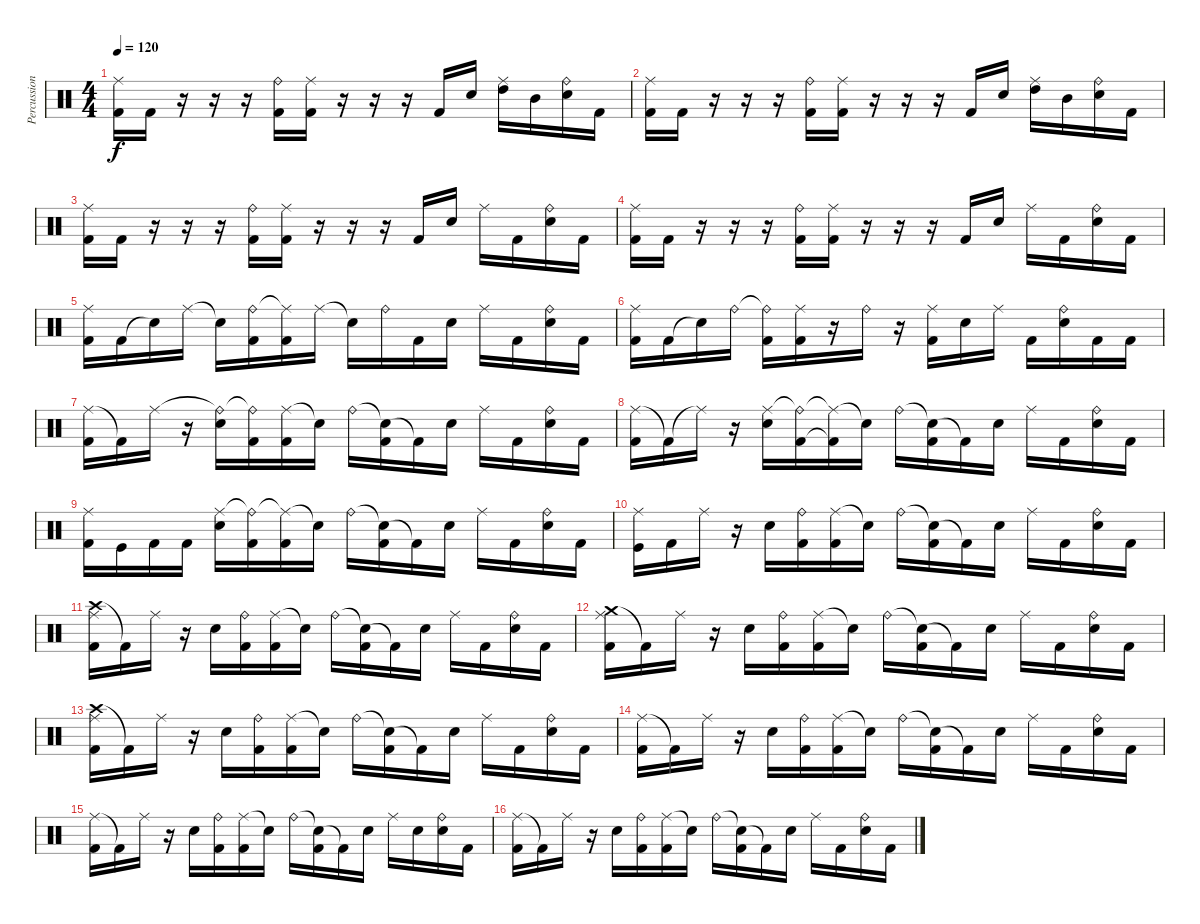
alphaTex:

\track ("Percussioni" "Percussion") {instrument percussion}
\staff {score}
\articulation defaults
\ts (4 4)
\tempo 120
\clef neutral
\ks c
("Ride (middle)" "Kick (hit) 2").16{dy f} "Kick (hit) 2".16 r.16 r.16 r.16 ("Ride (bell)" "Kick (hit) 2").16 ("Ride (middle)" "Kick (hit) 2").16 r.16 r.16 r.16 "Kick (hit) 2".16 "Electric Snare (hit)".16 ("Ride (middle)" "High Tom (hit)").16 "Mid Tom (hit)".16 ("Ride (bell)" "Electric Snare (hit)").16 "Kick (hit) 2".16 |
("Ride (middle)" "Kick (hit) 2").16 "Kick (hit) 2".16 r.16 r.16 r.16 ("Ride (bell)" "Kick (hit) 2").16 ("Ride (middle)" "Kick (hit) 2").16 r.16 r.16 r.16 "Kick (hit) 2".16 "Electric Snare (hit)".16 ("Ride (middle)" "High Tom (hit)").16 "Mid Tom (hit)".16 ("Ride (bell)" "Electric Snare (hit)").16 "Kick (hit) 2".16 |
("Ride (middle)" "Kick (hit) 2").16 "Kick (hit) 2".16 r.16 r.16 r.16 ("Ride (bell)" "Kick (hit) 2").16 ("Ride (middle)" "Kick (hit) 2").16 r.16 r.16 r.16 "Kick (hit) 2".16 "Electric Snare (hit)".16 "Ride (middle)".16 "Kick (hit) 2".16 ("Ride (bell)" "Electric Snare (hit)").16 "Kick (hit) 2".16 |
("Ride (middle)" "Kick (hit) 2").16 "Kick (hit) 2".16 r.16 r.16 r.16 ("Ride (bell)" "Kick (hit) 2").16 ("Ride (middle)" "Kick (hit) 2").16 r.16 r.16 r.16 "Kick (hit) 2".16 "Electric Snare (hit)".16 "Ride (middle)".16 "Kick (hit) 2".16 ("Ride (bell)" "Electric Snare (hit)").16 "Kick (hit) 2".16 |
("Ride (middle)" "Kick (hit) 2").16 "Kick (hit) 2".16 "Snare (hit)"{t}.16 "Ride (middle)".16 "Snare (hit)"{t}.16 ("Ride (bell)" "Kick (hit) 2").16 ("Ride (middle)"{t} "Kick (hit) 2").16 "Ride (middle)".16 "Snare (hit)"{t}.16 "Ride (bell)".16 "Kick (hit) 2".16 "Electric Snare (hit)".16 "Ride (middle)".16 "Kick (hit) 2".16 ("Ride (bell)" "Electric Snare (hit)").16 "Kick (hit) 2".16 |
("Ride (middle)" "Kick (hit) 2").16 "Kick (hit) 2".16 "Snare (hit)"{t}.16 "Ride (bell)".16 ("Ride (bell)"{t} "Kick (hit) 2").16 ("Ride (middle)" "Kick (hit) 2").16 r.16 "Ride (bell)".16 r.16 ("Ride (middle)" "Kick (hit) 2").16 "Electric Snare (hit)".16 "Ride (middle)".16 "Kick (hit) 2".16 ("Ride (bell)" "Electric Snare (hit)").16 "Kick (hit) 2".16 "Kick (hit) 2".16 |
("Ride (middle)" "Kick (hit) 2").16 "Kick (hit) 2"{t}.16 "Ride (middle)".16 r.16 ("Ride (bell)"{t} "Electric Snare (hit)").16 ("Ride (bell)"{t} "Kick (hit) 2").16 ("Ride (middle)" "Kick (hit) 2").16 "Snare (hit)"{t}.16 "Ride (bell)".16 ("Snare (hit)"{t} "Kick (hit) 2").16 "Kick (hit) 2"{t}.16 "Electric Snare (hit)".16 "Ride (middle)".16 "Kick (hit) 2".16 ("Ride (bell)" "Electric Snare (hit)").16 "Kick (hit) 2".16 |
("Ride (middle)" "Kick (hit) 2").16 "Kick (hit) 2"{t}.16 "Ride (middle)"{t}.16 r.16 ("Ride (middle)" "Electric Snare (hit)").16 ("Ride (bell)"{t} "Kick (hit) 2").16 ("Ride (middle)"{t} "Kick (hit) 2"{t}).16 "Snare (hit)"{t}.16 "Ride (bell)".16 ("Snare (hit)"{t} "Kick (hit) 2").16 "Kick (hit) 2"{t}.16 "Electric Snare (hit)".16 "Ride (middle)".16 "Kick (hit) 2".16 ("Ride (bell)" "Electric Snare (hit)").16 "Kick (hit) 2".16 |
("Ride (middle)" "Kick (hit) 2").16 "Kick (hit)".16 "Kick (hit) 2".16 "Kick (hit) 2".16 ("Ride (middle)" "Electric Snare (hit)").16 ("Ride (bell)"{t} "Kick (hit) 2").16 ("Ride (middle)"{t} "Kick (hit) 2").16 "Snare (hit)"{t}.16 "Ride (bell)".16 ("Snare (hit)"{t} "Kick (hit) 2").16 "Kick (hit) 2"{t}.16 "Electric Snare (hit)".16 "Ride (middle)".16 "Kick (hit) 2".16 ("Ride (bell)" "Electric Snare (hit)").16 "Kick (hit) 2".16 |
("Ride (middle)" "Kick (hit)").16 "Kick (hit) 2".16 "Ride (middle)".16 r.16 "Electric Snare (hit)".16 ("Ride (bell)" "Kick (hit) 2").16 ("Ride (middle)" "Kick (hit) 2").16 "Snare (hit)"{t}.16 "Ride (bell)".16 ("Snare (hit)"{t} "Kick (hit) 2").16 "Kick (hit) 2"{t}.16 "Electric Snare (hit)".16 "Ride (middle)".16 "Kick (hit) 2".16 ("Ride (bell)" "Electric Snare (hit)").16 "Kick (hit) 2".16 |
("Crash high (hit)" "Ride (middle)" "Kick (hit) 2").16 "Kick (hit) 2"{t}.16 "Ride (middle)".16 r.16 "Electric Snare (hit)".16 ("Ride (bell)" "Kick (hit) 2").16 ("Ride (middle)" "Kick (hit) 2").16 "Snare (hit)"{t}.16 "Ride (bell)".16 ("Snare (hit)"{t} "Kick (hit) 2").16 "Kick (hit) 2"{t}.16 "Electric Snare (hit)".16 "Ride (middle)".16 "Kick (hit) 2".16 ("Ride (bell)" "Electric Snare (hit)").16 "Kick (hit) 2".16 |
("Crash medium (hit)" "Ride (middle)" "Kick (hit) 2").16 "Kick (hit) 2"{t}.16 "Ride (middle)".16 r.16 "Electric Snare (hit)".16 ("Ride (bell)" "Kick (hit) 2").16 ("Ride (middle)" "Kick (hit) 2").16 "Snare (hit)"{t}.16 "Ride (bell)".16 ("Snare (hit)"{t} "Kick (hit) 2").16 "Kick (hit) 2"{t}.16 "Electric Snare (hit)".16 "Ride (middle)".16 "Kick (hit) 2".16 ("Ride (bell)" "Electric Snare (hit)").16 "Kick (hit) 2".16 |
("Crash high (hit)" "Ride (middle)" "Kick (hit) 2").16 "Kick (hit) 2"{t}.16 "Ride (middle)".16 r.16 "Electric Snare (hit)".16 ("Ride (bell)" "Kick (hit) 2").16 ("Ride (middle)" "Kick (hit) 2").16 "Snare (hit)"{t}.16 "Ride (bell)".16 ("Snare (hit)"{t} "Kick (hit) 2").16 "Kick (hit) 2"{t}.16 "Electric Snare (hit)".16 "Ride (middle)".16 "Kick (hit) 2".16 ("Ride (bell)" "Electric Snare (hit)").16 "Kick (hit) 2".16 |
("Ride (middle)" "Kick (hit) 2").16 "Kick (hit) 2"{t}.16 "Ride (middle)".16 r.16 "Electric Snare (hit)".16 ("Ride (bell)" "Kick (hit) 2").16 ("Ride (middle)" "Kick (hit) 2").16 "Snare (hit)"{t}.16 "Ride (bell)".16 ("Snare (hit)"{t} "Kick (hit) 2").16 "Kick (hit) 2"{t}.16 "Electric Snare (hit)".16 "Ride (middle)".16 "Kick (hit) 2".16 ("Ride (bell)" "Electric Snare (hit)").16 "Kick (hit) 2".16 |
("Ride (middle)" "Kick (hit) 2").16 "Kick (hit) 2"{t}.16 "Ride (middle)".16 r.16 "Electric Snare (hit)".16 ("Ride (bell)" "Kick (hit) 2").16 ("Ride (middle)" "Kick (hit) 2").16 "Snare (hit)"{t}.16 "Ride (bell)".16 ("Snare (hit)"{t} "Kick (hit) 2").16 "Kick (hit) 2"{t}.16 "Electric Snare (hit)".16 "Ride (middle)".16 "Electric Snare (hit)".16 ("Ride (bell)" "Electric Snare (hit)").16 "Kick (hit) 2".16 |
("Ride (middle)" "Kick (hit) 2").16 "Kick (hit) 2"{t}.16 "Ride (middle)".16 r.16 "Electric Snare (hit)".16 ("Ride (bell)" "Kick (hit) 2").16 ("Ride (middle)" "Kick (hit) 2").16 "Snare (hit)"{t}.16 "Ride (bell)".16 ("Snare (hit)"{t} "Kick (hit) 2").16 "Kick (hit) 2"{t}.16 "Electric Snare (hit)".16 "Ride (middle)".16 "Kick (hit) 2".16 ("Ride (bell)" "Electric Snare (hit)").16 "Kick (hit) 2".16
